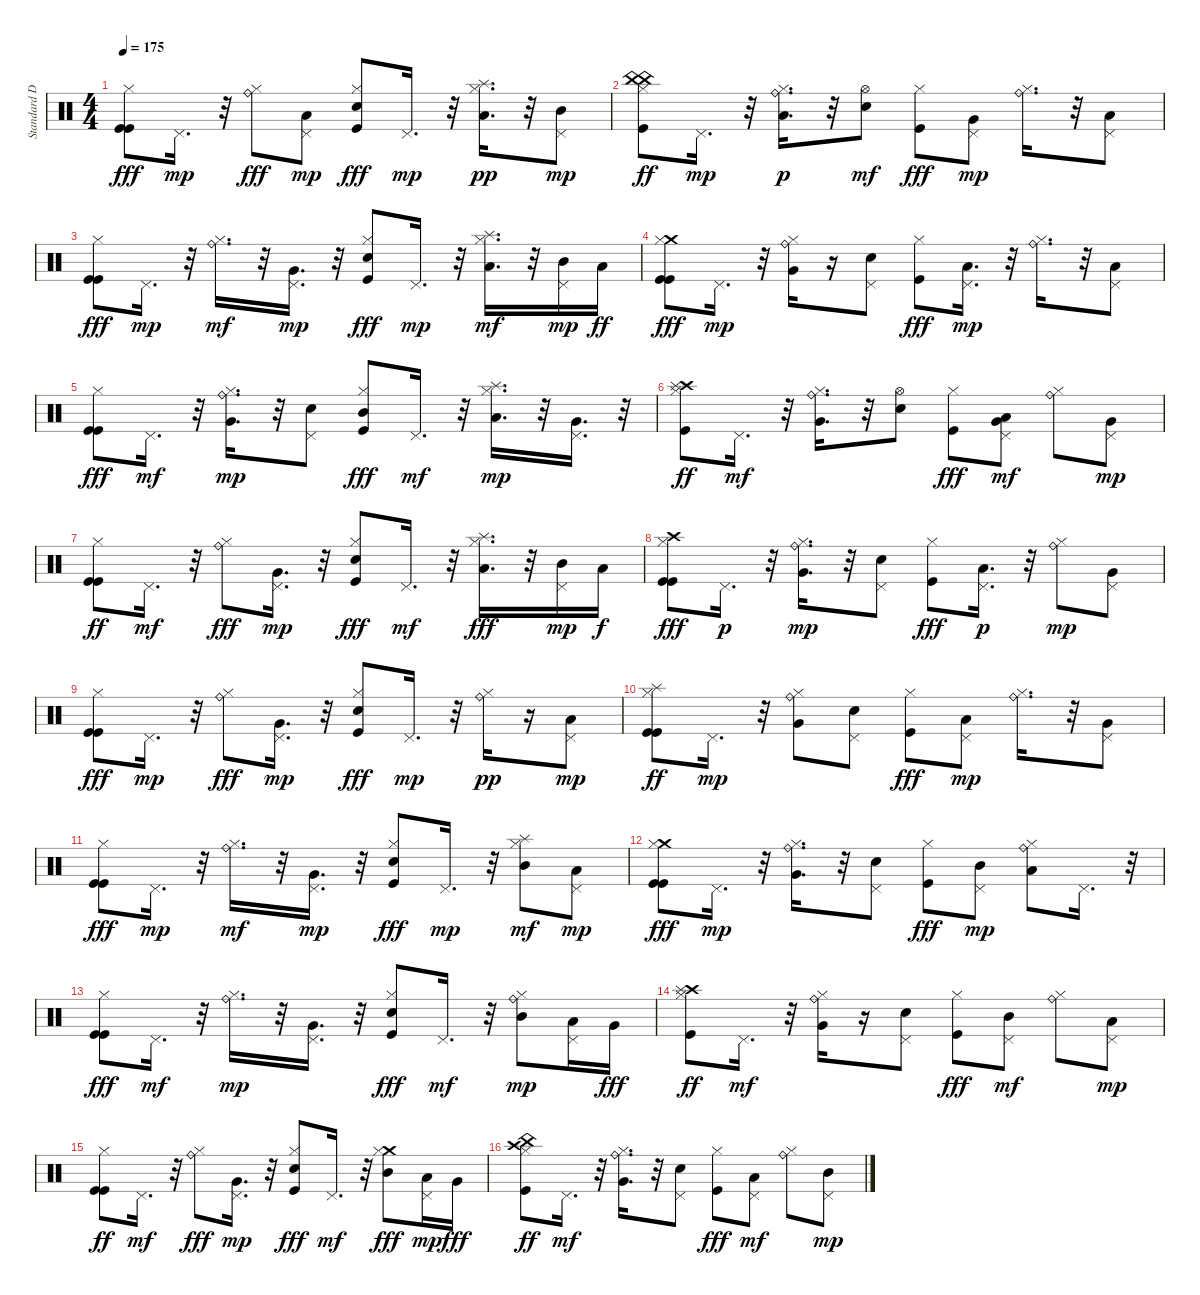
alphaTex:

\track ("Standard Drums" "Standard D") {instrument percussion}
\staff {score}
\articulation defaults
\ts (4 4)
\tempo 175
\clef neutral
\ks c
("Kick (hit)" "Kick (hit)" "Hi-Hat (closed)").8{dy fff} "Pedal Hi-Hat (hit)".16{d dy mp} r.32 ("Ride (bell)" "Hi-Hat (closed)").8{dy fff} ("Low Tom (hit)" "Pedal Hi-Hat (hit)").8{dy mp} ("Snare (hit) 2" "Kick (hit)" "Hi-Hat (closed)").8{dy fff} "Pedal Hi-Hat (hit)".16{d dy mp} r.32 ("Splash (hit)" "Low Tom (hit)" "Hi-Hat (closed)").16{d dy pp} r.32 ("Mid Tom (hit)" "Pedal Hi-Hat (hit)").8{dy mp} |
("China (hit)" "Kick (hit)" "China (hit)" "Hi-Hat (closed)").8{dy ff} "Pedal Hi-Hat (hit)".16{d dy mp} r.32 ("Ride (bell)" "Low Tom (hit)" "Hi-Hat (closed)").16{d dy p} r.32 ("Snare (hit) 2" "Hi-Hat (open)").8{dy mf} ("Kick (hit)" "Hi-Hat (closed)").8{dy fff} ("Very Low Tom (hit)" "Pedal Hi-Hat (hit)").8{dy mp} ("Ride (bell)" "Hi-Hat (closed)").16{d} r.32 ("Low Tom (hit)" "Pedal Hi-Hat (hit)").8 |
("Kick (hit)" "Kick (hit)" "Hi-Hat (closed)").8{dy fff} "Pedal Hi-Hat (hit)".16{d dy mp} r.32 ("Ride (bell)" "Hi-Hat (closed)").16{d dy mf} r.32 ("Very Low Tom (hit)" "Pedal Hi-Hat (hit)").16{d dy mp} r.32 ("Snare (hit) 2" "Kick (hit)" "Hi-Hat (closed)").8{dy fff} "Pedal Hi-Hat (hit)".16{d dy mp} r.32 ("Splash (hit)" "Low Tom (hit)" "Hi-Hat (closed)").16{d dy mf} r.32 ("Mid Tom (hit)" "Pedal Hi-Hat (hit)").16{dy mp} "Low Tom (hit)".16{dy ff} |
("Crash medium (hit)" "Kick (hit)" "Kick (hit)" "Hi-Hat (closed)").8{dy fff} "Pedal Hi-Hat (hit)".16{d dy mp} r.32 ("Ride (bell)" "Very Low Tom (hit)" "Hi-Hat (closed)").16 r.16 ("Snare (hit) 2" "Pedal Hi-Hat (hit)").8 ("Kick (hit)" "Hi-Hat (closed)").8{dy fff} ("Low Tom (hit)" "Pedal Hi-Hat (hit)").16{d dy mp} r.32 ("Ride (bell)" "Hi-Hat (closed)").16{d} r.32 ("Low Tom (hit)" "Pedal Hi-Hat (hit)").8 |
("Kick (hit)" "Kick (hit)" "Hi-Hat (closed)").8{dy fff} "Pedal Hi-Hat (hit)".16{d dy mf} r.32 ("Ride (bell)" "Very Low Tom (hit)" "Hi-Hat (closed)").16{d dy mp} r.32 ("Snare (hit) 2" "Pedal Hi-Hat (hit)").8 ("Mid Tom (hit)" "Kick (hit)" "Hi-Hat (closed)").8{dy fff} "Pedal Hi-Hat (hit)".16{d dy mf} r.32 ("Splash (hit)" "Low Tom (hit)" "Hi-Hat (closed)").16{d dy mp} r.32 ("Very Low Tom (hit)" "Pedal Hi-Hat (hit)").16{d} r.32 |
("Crash high (hit)" "Kick (hit)" "Splash (hit)" "Hi-Hat (closed)").8{dy ff} "Pedal Hi-Hat (hit)".16{d dy mf} r.32 ("Ride (bell)" "Very Low Tom (hit)" "Hi-Hat (closed)").16{d} r.32 ("Snare (hit) 2" "Hi-Hat (open)").8 ("Kick (hit)" "Hi-Hat (closed)").8{dy fff} ("Low Tom (hit)" "Very Low Tom (hit)" "Pedal Hi-Hat (hit)").8{dy mf} ("Ride (bell)" "Hi-Hat (closed)").8 ("Very Low Tom (hit)" "Pedal Hi-Hat (hit)").8{dy mp} |
("Kick (hit)" "Kick (hit)" "Hi-Hat (closed)").8{dy ff} "Pedal Hi-Hat (hit)".16{d dy mf} r.32 ("Ride (bell)" "Hi-Hat (closed)").8{dy fff} ("Very Low Tom (hit)" "Pedal Hi-Hat (hit)").16{d dy mp} r.32 ("Snare (hit) 2" "Kick (hit)" "Hi-Hat (closed)").8{dy fff} "Pedal Hi-Hat (hit)".16{d dy mf} r.32 ("Splash (hit)" "Low Tom (hit)" "Hi-Hat (closed)").16{d dy fff} r.32 ("Mid Tom (hit)" "Pedal Hi-Hat (hit)").16{dy mp} "Low Tom (hit)".16{dy f} |
("Crash high (hit)" "Kick (hit)" "Kick (hit)" "Hi-Hat (closed)").8{dy fff} "Pedal Hi-Hat (hit)".16{d dy p} r.32 ("Ride (bell)" "Very Low Tom (hit)" "Hi-Hat (closed)").16{d dy mp} r.32 ("Snare (hit) 2" "Pedal Hi-Hat (hit)").8 ("Kick (hit)" "Hi-Hat (closed)").8{dy fff} ("Low Tom (hit)" "Pedal Hi-Hat (hit)").16{d dy p} r.32 ("Ride (bell)" "Hi-Hat (closed)").8{dy mp} ("Very Low Tom (hit)" "Pedal Hi-Hat (hit)").8 |
("Kick (hit)" "Kick (hit)" "Hi-Hat (closed)").8{dy fff} "Pedal Hi-Hat (hit)".16{d dy mp} r.32 ("Ride (bell)" "Hi-Hat (closed)").8{dy fff} ("Very Low Tom (hit)" "Pedal Hi-Hat (hit)").16{d dy mp} r.32 ("Snare (hit) 2" "Kick (hit)" "Hi-Hat (closed)").8{dy fff} "Pedal Hi-Hat (hit)".16{d dy mp} r.32 ("Ride (bell)" "Hi-Hat (closed)").16{dy pp} r.16 ("Low Tom (hit)" "Pedal Hi-Hat (hit)").8{dy mp} |
("Splash (hit)" "Kick (hit)" "Kick (hit)" "Hi-Hat (closed)").8{dy ff} "Pedal Hi-Hat (hit)".16{d dy mp} r.32 ("Ride (bell)" "Very Low Tom (hit)" "Hi-Hat (closed)").8 ("Snare (hit) 2" "Pedal Hi-Hat (hit)").8 ("Kick (hit)" "Hi-Hat (closed)").8{dy fff} ("Low Tom (hit)" "Pedal Hi-Hat (hit)").8{dy mp} ("Ride (bell)" "Hi-Hat (closed)").16{d} r.32 ("Very Low Tom (hit)" "Pedal Hi-Hat (hit)").8 |
("Kick (hit)" "Kick (hit)" "Hi-Hat (closed)").8{dy fff} "Pedal Hi-Hat (hit)".16{d dy mp} r.32 ("Ride (bell)" "Hi-Hat (closed)").16{d dy mf} r.32 ("Very Low Tom (hit)" "Pedal Hi-Hat (hit)").16{d dy mp} r.32 ("Snare (hit) 2" "Kick (hit)" "Hi-Hat (closed)").8{dy fff} "Pedal Hi-Hat (hit)".16{d dy mp} r.32 ("Splash (hit)" "Mid Tom (hit)" "Hi-Hat (closed)").8{dy mf} ("Low Tom (hit)" "Pedal Hi-Hat (hit)").8{dy mp} |
("Crash medium (hit)" "Kick (hit)" "Kick (hit)" "Hi-Hat (closed)").8{dy fff} "Pedal Hi-Hat (hit)".16{d dy mp} r.32 ("Ride (bell)" "Very Low Tom (hit)" "Hi-Hat (closed)").16{d} r.32 ("Snare (hit) 2" "Pedal Hi-Hat (hit)").8 ("Kick (hit)" "Hi-Hat (closed)").8{dy fff} ("Mid Tom (hit)" "Pedal Hi-Hat (hit)").8{dy mp} ("Ride (bell)" "Low Tom (hit)" "Hi-Hat (closed)").8 "Pedal Hi-Hat (hit)".16{d} r.32 |
("Kick (hit)" "Kick (hit)" "Hi-Hat (closed)").8{dy fff} "Pedal Hi-Hat (hit)".16{d dy mf} r.32 ("Ride (bell)" "Hi-Hat (closed)").16{d dy mp} r.32 ("Very Low Tom (hit)" "Pedal Hi-Hat (hit)").16{d} r.32 ("Snare (hit) 2" "Kick (hit)" "Hi-Hat (closed)").8{dy fff} "Pedal Hi-Hat (hit)".16{d dy mf} r.32 ("Ride (bell)" "Mid Tom (hit)" "Hi-Hat (closed)").8{dy mp} ("Low Tom (hit)" "Pedal Hi-Hat (hit)").16 "Very Low Tom (hit)".16{dy fff} |
("Crash high (hit)" "Kick (hit)" "Splash (hit)" "Hi-Hat (closed)").8{dy ff} "Pedal Hi-Hat (hit)".16{d dy mf} r.32 ("Ride (bell)" "Very Low Tom (hit)" "Hi-Hat (closed)").16 r.16 ("Snare (hit) 2" "Pedal Hi-Hat (hit)").8 ("Kick (hit)" "Hi-Hat (closed)").8{dy fff} ("Mid Tom (hit)" "Pedal Hi-Hat (hit)").8{dy mf} ("Ride (bell)" "Hi-Hat (closed)").8 ("Low Tom (hit)" "Pedal Hi-Hat (hit)").8{dy mp} |
("Kick (hit)" "Kick (hit)" "Hi-Hat (closed)").8{dy ff} "Pedal Hi-Hat (hit)".16{d dy mf} r.32 ("Ride (bell)" "Hi-Hat (closed)").8{dy fff} ("Very Low Tom (hit)" "Pedal Hi-Hat (hit)").16{d dy mp} r.32 ("Snare (hit) 2" "Kick (hit)" "Hi-Hat (closed)").8{dy fff} "Pedal Hi-Hat (hit)".16{d dy mf} r.32 ("Crash medium (hit)" "Mid Tom (hit)" "Hi-Hat (closed)").8{dy fff} ("Low Tom (hit)" "Pedal Hi-Hat (hit)").16{dy mp} "Very Low Tom (hit)".16{dy fff} |
("Crash high (hit)" "Kick (hit)" "China (hit)" "Hi-Hat (closed)").8{dy ff} "Pedal Hi-Hat (hit)".16{d dy mf} r.32 ("Ride (bell)" "Very Low Tom (hit)" "Hi-Hat (closed)").16{d} r.32 ("Snare (hit) 2" "Pedal Hi-Hat (hit)").8 ("Kick (hit)" "Hi-Hat (closed)").8{dy fff} ("Low Tom (hit)" "Pedal Hi-Hat (hit)").8{dy mf} ("Ride (bell)" "Hi-Hat (closed)").8 ("Mid Tom (hit)" "Pedal Hi-Hat (hit)").8{dy mp}
